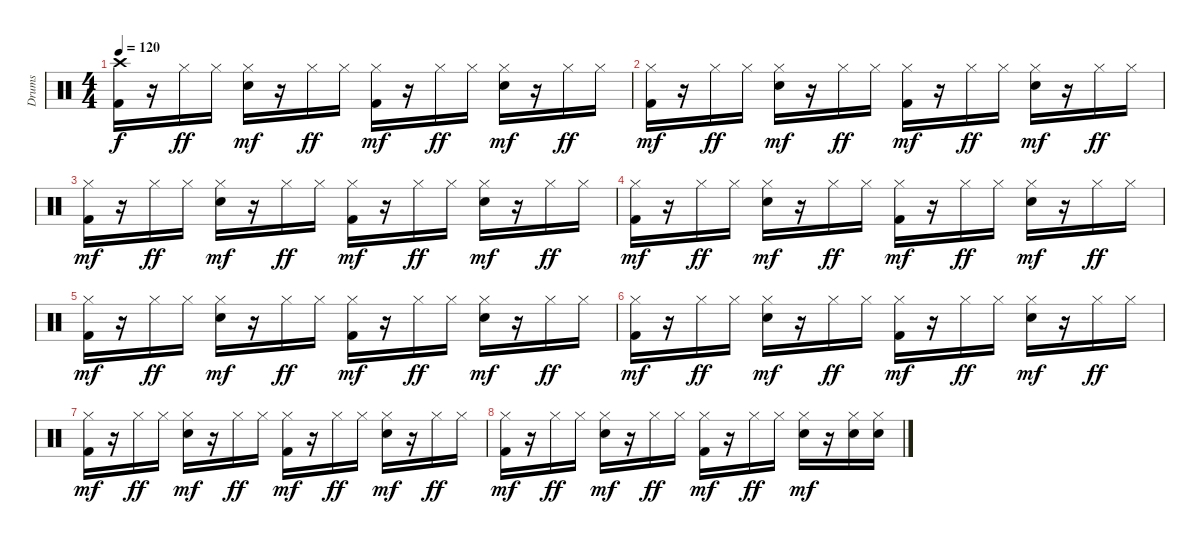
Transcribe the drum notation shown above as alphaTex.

\track ("Drums" "Drums") {instrument percussion}
\staff {score}
\articulation defaults
\ts (4 4)
\tempo 120
\clef neutral
\ks c
("Crash high (hit)" "Kick (hit) 2").16{dy f volume 14} r.16 "Hi-Hat (closed)".16{dy ff} "Hi-Hat (closed)".16 ("Hi-Hat (closed)" "Electric Snare (hit)").16{dy mf} r.16 "Hi-Hat (closed)".16{dy ff} "Hi-Hat (closed)".16 ("Hi-Hat (closed)" "Kick (hit) 2").16{dy mf} r.16 "Hi-Hat (closed)".16{dy ff} "Hi-Hat (closed)".16 ("Hi-Hat (closed)" "Electric Snare (hit)").16{dy mf} r.16 "Hi-Hat (closed)".16{dy ff} "Hi-Hat (closed)".16 |
("Hi-Hat (closed)" "Kick (hit) 2").16{dy mf} r.16 "Hi-Hat (closed)".16{dy ff} "Hi-Hat (closed)".16 ("Hi-Hat (closed)" "Electric Snare (hit)").16{dy mf} r.16 "Hi-Hat (closed)".16{dy ff} "Hi-Hat (closed)".16 ("Hi-Hat (closed)" "Kick (hit) 2").16{dy mf} r.16 "Hi-Hat (closed)".16{dy ff} "Hi-Hat (closed)".16 ("Hi-Hat (closed)" "Electric Snare (hit)").16{dy mf} r.16 "Hi-Hat (closed)".16{dy ff} "Hi-Hat (closed)".16 |
("Hi-Hat (closed)" "Kick (hit) 2").16{dy mf volume 12} r.16 "Hi-Hat (closed)".16{dy ff} "Hi-Hat (closed)".16 ("Hi-Hat (closed)" "Electric Snare (hit)").16{dy mf} r.16 "Hi-Hat (closed)".16{dy ff} "Hi-Hat (closed)".16 ("Hi-Hat (closed)" "Kick (hit) 2").16{dy mf} r.16 "Hi-Hat (closed)".16{dy ff} "Hi-Hat (closed)".16 ("Hi-Hat (closed)" "Electric Snare (hit)").16{dy mf} r.16 "Hi-Hat (closed)".16{dy ff} "Hi-Hat (closed)".16 |
("Hi-Hat (closed)" "Kick (hit) 2").16{dy mf} r.16 "Hi-Hat (closed)".16{dy ff} "Hi-Hat (closed)".16 ("Hi-Hat (closed)" "Electric Snare (hit)").16{dy mf} r.16 "Hi-Hat (closed)".16{dy ff} "Hi-Hat (closed)".16 ("Hi-Hat (closed)" "Kick (hit) 2").16{dy mf} r.16 "Hi-Hat (closed)".16{dy ff} "Hi-Hat (closed)".16 ("Hi-Hat (closed)" "Electric Snare (hit)").16{dy mf} r.16 "Hi-Hat (closed)".16{dy ff} "Hi-Hat (closed)".16 |
("Hi-Hat (closed)" "Kick (hit) 2").16{dy mf volume 9} r.16 "Hi-Hat (closed)".16{dy ff} "Hi-Hat (closed)".16 ("Hi-Hat (closed)" "Electric Snare (hit)").16{dy mf} r.16 "Hi-Hat (closed)".16{dy ff} "Hi-Hat (closed)".16 ("Hi-Hat (closed)" "Kick (hit) 2").16{dy mf} r.16 "Hi-Hat (closed)".16{dy ff} "Hi-Hat (closed)".16 ("Hi-Hat (closed)" "Electric Snare (hit)").16{dy mf} r.16 "Hi-Hat (closed)".16{dy ff} "Hi-Hat (closed)".16 |
("Hi-Hat (closed)" "Kick (hit) 2").16{dy mf} r.16 "Hi-Hat (closed)".16{dy ff} "Hi-Hat (closed)".16 ("Hi-Hat (closed)" "Electric Snare (hit)").16{dy mf} r.16 "Hi-Hat (closed)".16{dy ff} "Hi-Hat (closed)".16 ("Hi-Hat (closed)" "Kick (hit) 2").16{dy mf} r.16 "Hi-Hat (closed)".16{dy ff} "Hi-Hat (closed)".16 ("Hi-Hat (closed)" "Electric Snare (hit)").16{dy mf} r.16 "Hi-Hat (closed)".16{dy ff} "Hi-Hat (closed)".16 |
("Hi-Hat (closed)" "Kick (hit) 2").16{dy mf volume 2} r.16 "Hi-Hat (closed)".16{dy ff} "Hi-Hat (closed)".16 ("Hi-Hat (closed)" "Electric Snare (hit)").16{dy mf} r.16 "Hi-Hat (closed)".16{dy ff} "Hi-Hat (closed)".16 ("Hi-Hat (closed)" "Kick (hit) 2").16{dy mf} r.16 "Hi-Hat (closed)".16{dy ff} "Hi-Hat (closed)".16 ("Hi-Hat (closed)" "Electric Snare (hit)").16{dy mf} r.16 "Hi-Hat (closed)".16{dy ff} "Hi-Hat (closed)".16 |
("Hi-Hat (closed)" "Kick (hit) 2").16{dy mf} r.16 "Hi-Hat (closed)".16{dy ff} "Hi-Hat (closed)".16 ("Hi-Hat (closed)" "Electric Snare (hit)").16{dy mf} r.16 "Hi-Hat (closed)".16{dy ff} "Hi-Hat (closed)".16 ("Hi-Hat (closed)" "Kick (hit) 2").16{dy mf} r.16 "Hi-Hat (closed)".16{dy ff} "Hi-Hat (closed)".16 ("Hi-Hat (closed)" "Electric Snare (hit)").16{dy mf} r.16 ("Hi-Hat (closed)" "Electric Snare (hit)").16 ("Hi-Hat (closed)" "Electric Snare (hit)").16
